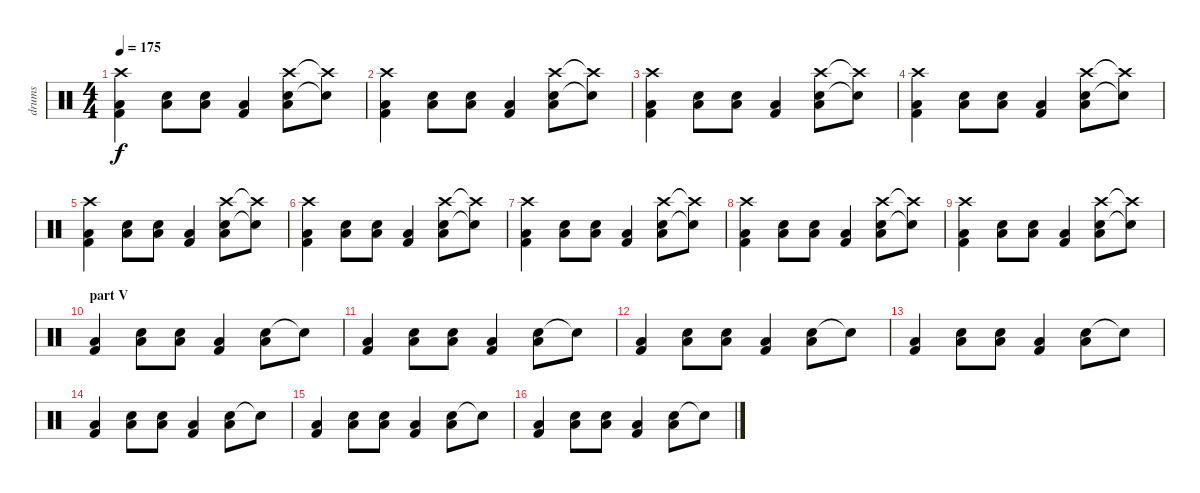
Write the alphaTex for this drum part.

\track ("drums" "drums") {instrument percussion}
\staff {score}
\articulation defaults
\ts (4 4)
\tempo 175
\clef neutral
\ks c
("Crash high (hit)" "Kick (hit) 2" "Low Floor Tom (hit)").4{dy f} ("Snare (hit) 2" "Low Floor Tom (hit)").8 ("Snare (hit) 2" "Low Floor Tom (hit)").8 ("Kick (hit) 2" "Low Floor Tom (hit)").4 ("Crash high (hit)" "Snare (hit) 2" "Low Floor Tom (hit)").8 ("Crash high (hit)"{t} "Snare (hit)"{t}).8 |
("Crash high (hit)" "Kick (hit) 2" "Low Floor Tom (hit)").4 ("Snare (hit) 2" "Low Floor Tom (hit)").8 ("Snare (hit) 2" "Low Floor Tom (hit)").8 ("Kick (hit) 2" "Low Floor Tom (hit)").4 ("Crash high (hit)" "Snare (hit) 2" "Low Floor Tom (hit)").8 ("Crash high (hit)"{t} "Snare (hit)"{t}).8 |
("Crash high (hit)" "Kick (hit) 2" "Low Floor Tom (hit)").4 ("Snare (hit) 2" "Low Floor Tom (hit)").8 ("Snare (hit) 2" "Low Floor Tom (hit)").8 ("Kick (hit) 2" "Low Floor Tom (hit)").4 ("Crash high (hit)" "Snare (hit) 2" "Low Floor Tom (hit)").8 ("Crash high (hit)"{t} "Snare (hit)"{t}).8 |
("Crash high (hit)" "Kick (hit) 2" "Low Floor Tom (hit)").4 ("Snare (hit) 2" "Low Floor Tom (hit)").8 ("Snare (hit) 2" "Low Floor Tom (hit)").8 ("Kick (hit) 2" "Low Floor Tom (hit)").4 ("Crash high (hit)" "Snare (hit) 2" "Low Floor Tom (hit)").8 ("Crash high (hit)"{t} "Snare (hit)"{t}).8 |
("Crash high (hit)" "Kick (hit) 2" "Low Floor Tom (hit)").4 ("Snare (hit) 2" "Low Floor Tom (hit)").8 ("Snare (hit) 2" "Low Floor Tom (hit)").8 ("Kick (hit) 2" "Low Floor Tom (hit)").4 ("Crash high (hit)" "Snare (hit) 2" "Low Floor Tom (hit)").8 ("Crash high (hit)"{t} "Snare (hit)"{t}).8 |
("Crash high (hit)" "Kick (hit) 2" "Low Floor Tom (hit)").4 ("Snare (hit) 2" "Low Floor Tom (hit)").8 ("Snare (hit) 2" "Low Floor Tom (hit)").8 ("Kick (hit) 2" "Low Floor Tom (hit)").4 ("Crash high (hit)" "Snare (hit) 2" "Low Floor Tom (hit)").8 ("Crash high (hit)"{t} "Snare (hit)"{t}).8 |
("Crash high (hit)" "Kick (hit) 2" "Low Floor Tom (hit)").4 ("Snare (hit) 2" "Low Floor Tom (hit)").8 ("Snare (hit) 2" "Low Floor Tom (hit)").8 ("Kick (hit) 2" "Low Floor Tom (hit)").4 ("Crash high (hit)" "Snare (hit) 2" "Low Floor Tom (hit)").8 ("Crash high (hit)"{t} "Snare (hit)"{t}).8 |
("Crash high (hit)" "Kick (hit) 2" "Low Floor Tom (hit)").4 ("Snare (hit) 2" "Low Floor Tom (hit)").8 ("Snare (hit) 2" "Low Floor Tom (hit)").8 ("Kick (hit) 2" "Low Floor Tom (hit)").4 ("Crash high (hit)" "Snare (hit) 2" "Low Floor Tom (hit)").8 ("Crash high (hit)"{t} "Snare (hit)"{t}).8 |
("Crash high (hit)" "Kick (hit) 2" "Low Floor Tom (hit)").4 ("Snare (hit) 2" "Low Floor Tom (hit)").8 ("Snare (hit) 2" "Low Floor Tom (hit)").8 ("Kick (hit) 2" "Low Floor Tom (hit)").4 ("Crash high (hit)" "Snare (hit) 2" "Low Floor Tom (hit)").8 ("Crash high (hit)"{t} "Snare (hit)"{t}).8 |
\section ("" "part V")
("Kick (hit) 2" "Low Floor Tom (hit)").4 ("Snare (hit) 2" "Low Floor Tom (hit)").8 ("Snare (hit) 2" "Low Floor Tom (hit)").8 ("Kick (hit) 2" "Low Floor Tom (hit)").4 ("Snare (hit) 2" "Low Floor Tom (hit)").8 "Snare (hit)"{t}.8 |
("Kick (hit) 2" "Low Floor Tom (hit)").4 ("Snare (hit) 2" "Low Floor Tom (hit)").8 ("Snare (hit) 2" "Low Floor Tom (hit)").8 ("Kick (hit) 2" "Low Floor Tom (hit)").4 ("Snare (hit) 2" "Low Floor Tom (hit)").8 "Snare (hit)"{t}.8 |
("Kick (hit) 2" "Low Floor Tom (hit)").4 ("Snare (hit) 2" "Low Floor Tom (hit)").8 ("Snare (hit) 2" "Low Floor Tom (hit)").8 ("Kick (hit) 2" "Low Floor Tom (hit)").4 ("Snare (hit) 2" "Low Floor Tom (hit)").8 "Snare (hit)"{t}.8 |
("Kick (hit) 2" "Low Floor Tom (hit)").4 ("Snare (hit) 2" "Low Floor Tom (hit)").8 ("Snare (hit) 2" "Low Floor Tom (hit)").8 ("Kick (hit) 2" "Low Floor Tom (hit)").4 ("Snare (hit) 2" "Low Floor Tom (hit)").8 "Snare (hit)"{t}.8 |
("Kick (hit) 2" "Low Floor Tom (hit)").4 ("Snare (hit) 2" "Low Floor Tom (hit)").8 ("Snare (hit) 2" "Low Floor Tom (hit)").8 ("Kick (hit) 2" "Low Floor Tom (hit)").4 ("Snare (hit) 2" "Low Floor Tom (hit)").8 "Snare (hit)"{t}.8 |
("Kick (hit) 2" "Low Floor Tom (hit)").4 ("Snare (hit) 2" "Low Floor Tom (hit)").8 ("Snare (hit) 2" "Low Floor Tom (hit)").8 ("Kick (hit) 2" "Low Floor Tom (hit)").4 ("Snare (hit) 2" "Low Floor Tom (hit)").8 "Snare (hit)"{t}.8 |
("Kick (hit) 2" "Low Floor Tom (hit)").4 ("Snare (hit) 2" "Low Floor Tom (hit)").8 ("Snare (hit) 2" "Low Floor Tom (hit)").8 ("Kick (hit) 2" "Low Floor Tom (hit)").4 ("Snare (hit) 2" "Low Floor Tom (hit)").8 "Snare (hit)"{t}.8
